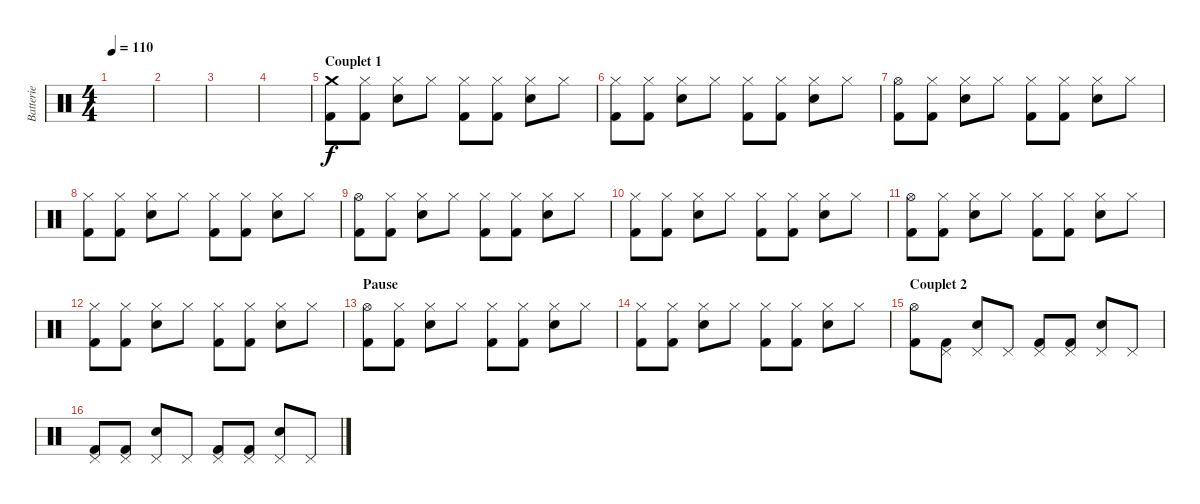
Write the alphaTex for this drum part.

\track ("Batterie" "Batterie") {instrument percussion}
\staff {score}
\articulation defaults
\ts (4 4)
\tempo 110
\clef neutral
\ks c
|
|
|
|
\section ("" "Couplet 1")
("Crash medium (hit)" "Kick (hit) 2").8 ("Hi-Hat (closed)" "Kick (hit) 2").8 ("Hi-Hat (closed)" "Electric Snare (hit)").8 "Hi-Hat (closed)".8 ("Hi-Hat (closed)" "Kick (hit) 2").8 ("Hi-Hat (closed)" "Kick (hit) 2").8 ("Hi-Hat (closed)" "Electric Snare (hit)").8 "Hi-Hat (closed)".8 |
("Hi-Hat (closed)" "Kick (hit) 2").8 ("Hi-Hat (closed)" "Kick (hit) 2").8 ("Hi-Hat (closed)" "Electric Snare (hit)").8 "Hi-Hat (closed)".8 ("Hi-Hat (closed)" "Kick (hit) 2").8 ("Hi-Hat (closed)" "Kick (hit) 2").8 ("Hi-Hat (closed)" "Electric Snare (hit)").8 "Hi-Hat (closed)".8 |
("Hi-Hat (open)" "Kick (hit) 2").8 ("Hi-Hat (closed)" "Kick (hit) 2").8 ("Hi-Hat (closed)" "Electric Snare (hit)").8 "Hi-Hat (closed)".8 ("Hi-Hat (closed)" "Kick (hit) 2").8 ("Hi-Hat (closed)" "Kick (hit) 2").8 ("Hi-Hat (closed)" "Electric Snare (hit)").8 "Hi-Hat (closed)".8 |
("Hi-Hat (closed)" "Kick (hit) 2").8 ("Hi-Hat (closed)" "Kick (hit) 2").8 ("Hi-Hat (closed)" "Electric Snare (hit)").8 "Hi-Hat (closed)".8 ("Hi-Hat (closed)" "Kick (hit) 2").8 ("Hi-Hat (closed)" "Kick (hit) 2").8 ("Hi-Hat (closed)" "Electric Snare (hit)").8 "Hi-Hat (closed)".8 |
("Hi-Hat (open)" "Kick (hit) 2").8 ("Hi-Hat (closed)" "Kick (hit) 2").8 ("Hi-Hat (closed)" "Electric Snare (hit)").8 "Hi-Hat (closed)".8 ("Hi-Hat (closed)" "Kick (hit) 2").8 ("Hi-Hat (closed)" "Kick (hit) 2").8 ("Hi-Hat (closed)" "Electric Snare (hit)").8 "Hi-Hat (closed)".8 |
("Hi-Hat (closed)" "Kick (hit) 2").8 ("Hi-Hat (closed)" "Kick (hit) 2").8 ("Hi-Hat (closed)" "Electric Snare (hit)").8 "Hi-Hat (closed)".8 ("Hi-Hat (closed)" "Kick (hit) 2").8 ("Hi-Hat (closed)" "Kick (hit) 2").8 ("Hi-Hat (closed)" "Electric Snare (hit)").8 "Hi-Hat (closed)".8 |
("Hi-Hat (open)" "Kick (hit) 2").8 ("Hi-Hat (closed)" "Kick (hit) 2").8 ("Hi-Hat (closed)" "Electric Snare (hit)").8 "Hi-Hat (closed)".8 ("Hi-Hat (closed)" "Kick (hit) 2").8 ("Hi-Hat (closed)" "Kick (hit) 2").8 ("Hi-Hat (closed)" "Electric Snare (hit)").8 "Hi-Hat (closed)".8 |
("Hi-Hat (closed)" "Kick (hit) 2").8 ("Hi-Hat (closed)" "Kick (hit) 2").8 ("Hi-Hat (closed)" "Electric Snare (hit)").8 "Hi-Hat (closed)".8 ("Hi-Hat (closed)" "Kick (hit) 2").8 ("Hi-Hat (closed)" "Kick (hit) 2").8 ("Hi-Hat (closed)" "Electric Snare (hit)").8 "Hi-Hat (closed)".8 |
\section ("" "Pause ")
("Hi-Hat (open)" "Kick (hit) 2").8 ("Hi-Hat (closed)" "Kick (hit) 2").8 ("Hi-Hat (closed)" "Electric Snare (hit)").8 "Hi-Hat (closed)".8 ("Hi-Hat (closed)" "Kick (hit) 2").8 ("Hi-Hat (closed)" "Kick (hit) 2").8 ("Hi-Hat (closed)" "Electric Snare (hit)").8 "Hi-Hat (closed)".8 |
("Hi-Hat (closed)" "Kick (hit) 2").8 ("Hi-Hat (closed)" "Kick (hit) 2").8 ("Hi-Hat (closed)" "Electric Snare (hit)").8 "Hi-Hat (closed)".8 ("Hi-Hat (closed)" "Kick (hit) 2").8 ("Hi-Hat (closed)" "Kick (hit) 2").8 ("Hi-Hat (closed)" "Electric Snare (hit)").8 "Hi-Hat (closed)".8 |
\section ("" "Couplet 2")
("Hi-Hat (open)" "Kick (hit) 2").8 ("Pedal Hi-Hat (hit)" "Kick (hit) 2").8 ("Pedal Hi-Hat (hit)" "Electric Snare (hit)").8 "Pedal Hi-Hat (hit)".8 ("Pedal Hi-Hat (hit)" "Kick (hit) 2").8 ("Pedal Hi-Hat (hit)" "Kick (hit) 2").8 ("Pedal Hi-Hat (hit)" "Electric Snare (hit)").8 "Pedal Hi-Hat (hit)".8 |
("Pedal Hi-Hat (hit)" "Kick (hit) 2").8 ("Pedal Hi-Hat (hit)" "Kick (hit) 2").8 ("Pedal Hi-Hat (hit)" "Electric Snare (hit)").8 "Pedal Hi-Hat (hit)".8 ("Pedal Hi-Hat (hit)" "Kick (hit) 2").8 ("Pedal Hi-Hat (hit)" "Kick (hit) 2").8 ("Pedal Hi-Hat (hit)" "Electric Snare (hit)").8 "Pedal Hi-Hat (hit)".8
